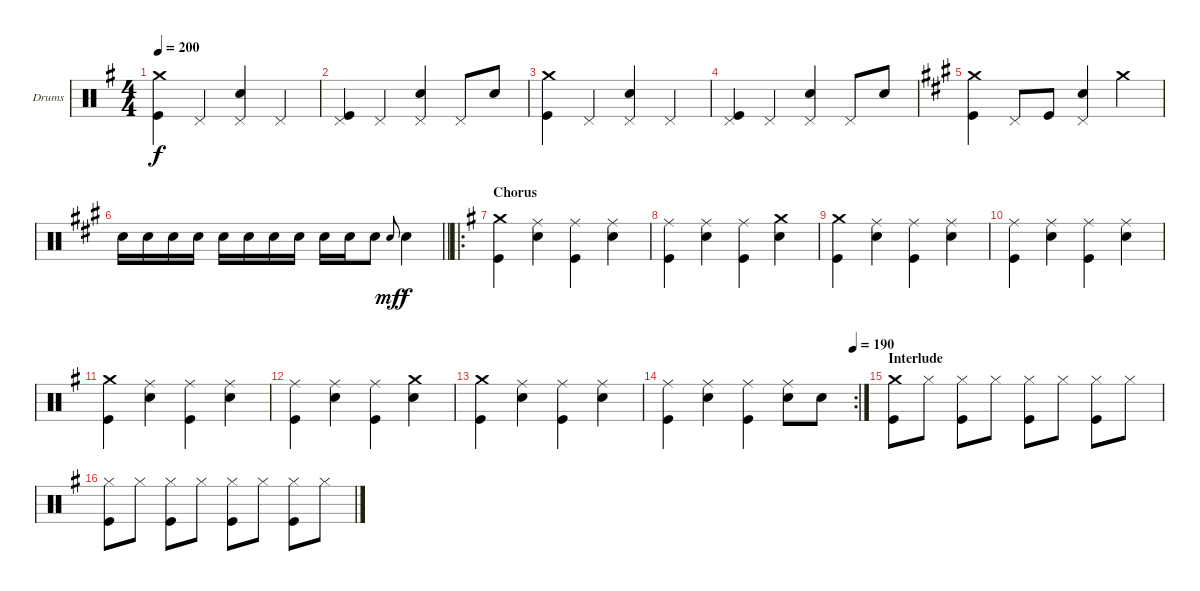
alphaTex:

\bracketExtendMode groupsimilarinstruments
\firstSystemTrackNameOrientation horizontal
\otherSystemsTrackNameOrientation horizontal
\track ("Drums" "Drums") {instrument percussion}
\staff {score}
\articulation defaults
\ts (4 4)
\tempo 200
\clef neutral
\ks g
("Crash medium (hit)" "Kick (hit)").4{dy f} "Pedal Hi-Hat (hit)".4 ("Pedal Hi-Hat (hit)" "Snare (hit) 2").4 "Pedal Hi-Hat (hit)".4 |
("Pedal Hi-Hat (hit)" "Kick (hit)").4 "Pedal Hi-Hat (hit)".4 ("Pedal Hi-Hat (hit)" "Snare (hit) 2").4 "Pedal Hi-Hat (hit)".8 "Snare (hit) 2".8 |
("Crash medium (hit)" "Kick (hit)").4 "Pedal Hi-Hat (hit)".4 ("Pedal Hi-Hat (hit)" "Snare (hit) 2").4 "Pedal Hi-Hat (hit)".4 |
("Pedal Hi-Hat (hit)" "Kick (hit)").4 "Pedal Hi-Hat (hit)".4 ("Pedal Hi-Hat (hit)" "Snare (hit) 2").4 "Pedal Hi-Hat (hit)".8 "Snare (hit) 2".8 |
\ks a
("Crash medium (hit)" "Kick (hit)").4 "Pedal Hi-Hat (hit)".8 "Kick (hit)".8 ("Pedal Hi-Hat (hit)" "Snare (hit) 2").4 "Crash medium (hit)".4 |
\barLineRight lightlight "Snare (hit) 2".16 "Snare (hit) 2".16 "Snare (hit) 2".16 "Snare (hit) 2".16 "Snare (hit) 2".16 "Snare (hit) 2".16 "Snare (hit) 2".16 "Snare (hit) 2".16 "Snare (hit) 2".16 "Snare (hit) 2".16 "Snare (hit) 2".8 "Snare (hit) 2".8{gr onbeat dy mf} "Snare (hit) 2".4{dy f}
|
\ro
\section ("" "Chorus")
\ks g
("Crash medium (hit)" "Kick (hit)").4 ("Ride (middle)" "Snare (hit) 2").4 ("Ride (middle)" "Kick (hit)").4 ("Ride (middle)" "Snare (hit) 2").4 |
("Ride (middle)" "Kick (hit)").4 ("Ride (middle)" "Snare (hit) 2").4 ("Ride (middle)" "Kick (hit)").4 ("Crash medium (hit)" "Snare (hit) 2").4 |
("Crash medium (hit)" "Kick (hit)").4 ("Ride (middle)" "Snare (hit) 2").4 ("Ride (middle)" "Kick (hit)").4 ("Ride (middle)" "Snare (hit) 2").4 |
("Ride (middle)" "Kick (hit)").4 ("Ride (middle)" "Snare (hit) 2").4 ("Ride (middle)" "Kick (hit)").4 ("Ride (middle)" "Snare (hit) 2").4 |
("Crash medium (hit)" "Kick (hit)").4 ("Ride (middle)" "Snare (hit) 2").4 ("Ride (middle)" "Kick (hit)").4 ("Ride (middle)" "Snare (hit) 2").4 |
("Ride (middle)" "Kick (hit)").4 ("Ride (middle)" "Snare (hit) 2").4 ("Ride (middle)" "Kick (hit)").4 ("Crash medium (hit)" "Snare (hit) 2").4 |
("Crash medium (hit)" "Kick (hit)").4 ("Ride (middle)" "Snare (hit) 2").4 ("Ride (middle)" "Kick (hit)").4 ("Ride (middle)" "Snare (hit) 2").4 |
\rc 2
\tempo (190 1)
("Ride (middle)" "Kick (hit)").4 ("Ride (middle)" "Snare (hit) 2").4 ("Ride (middle)" "Kick (hit)").4 ("Ride (middle)" "Snare (hit) 2").8 "Snare (hit) 2".8 |
\section ("" "Interlude")
("Crash medium (hit)" "Kick (hit)").8 "Hi-Hat (closed)".8 ("Hi-Hat (closed)" "Kick (hit)").8 "Hi-Hat (closed)".8 ("Hi-Hat (closed)" "Kick (hit)").8 "Hi-Hat (closed)".8 ("Hi-Hat (closed)" "Kick (hit)").8 "Hi-Hat (closed)".8 |
("Hi-Hat (closed)" "Kick (hit)").8 "Hi-Hat (closed)".8 ("Hi-Hat (closed)" "Kick (hit)").8 "Hi-Hat (closed)".8 ("Hi-Hat (closed)" "Kick (hit)").8 "Hi-Hat (closed)".8 ("Hi-Hat (closed)" "Kick (hit)").8 "Hi-Hat (closed)".8
